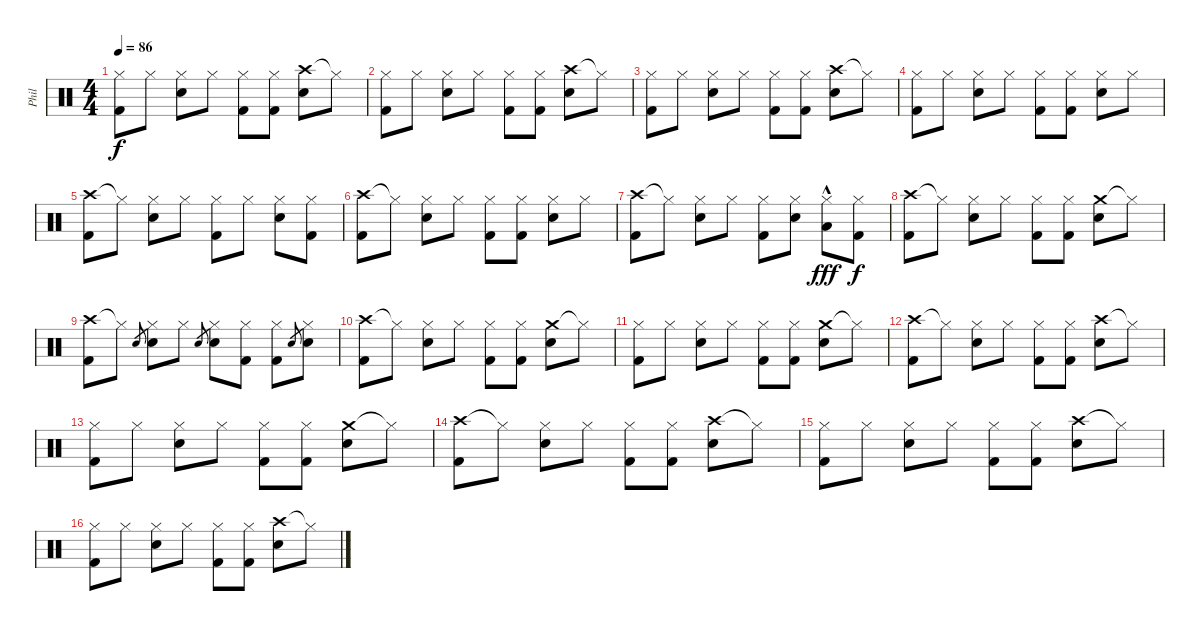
\track ("Phil" "Phil") {instrument percussion}
\staff {score}
\articulation defaults
\ts (4 4)
\tempo 86
\clef neutral
\ks c
("Hi-Hat (closed)" "Kick (hit) 2").8{dy f} "Hi-Hat (closed)".8 ("Hi-Hat (closed)" "Snare (hit) 2").8 "Hi-Hat (closed)".8 ("Hi-Hat (closed)" "Kick (hit) 2").8 ("Hi-Hat (closed)" "Kick (hit) 2").8 ("Crash high (hit)" "Snare (hit) 2").8 "Hi-Hat (closed)"{t}.8 |
("Hi-Hat (closed)" "Kick (hit) 2").8 "Hi-Hat (closed)".8 ("Hi-Hat (closed)" "Snare (hit) 2").8 "Hi-Hat (closed)".8 ("Hi-Hat (closed)" "Kick (hit) 2").8 ("Hi-Hat (closed)" "Kick (hit) 2").8 ("Crash high (hit)" "Snare (hit) 2").8 "Hi-Hat (closed)"{t}.8 |
("Hi-Hat (closed)" "Kick (hit) 2").8 "Hi-Hat (closed)".8 ("Hi-Hat (closed)" "Snare (hit) 2").8 "Hi-Hat (closed)".8 ("Hi-Hat (closed)" "Kick (hit) 2").8 ("Hi-Hat (closed)" "Kick (hit) 2").8 ("Crash high (hit)" "Snare (hit) 2").8 "Hi-Hat (closed)"{t}.8 |
("Hi-Hat (closed)" "Kick (hit) 2").8 "Hi-Hat (closed)".8 ("Hi-Hat (closed)" "Snare (hit) 2").8 "Hi-Hat (closed)".8 ("Hi-Hat (closed)" "Kick (hit) 2").8 ("Hi-Hat (closed)" "Kick (hit) 2").8 ("Hi-Hat (closed)" "Snare (hit) 2").8 "Hi-Hat (closed)".8 |
("Crash high (hit)" "Kick (hit) 2").8 "Hi-Hat (closed)"{t}.8 ("Hi-Hat (closed)" "Snare (hit) 2").8 "Hi-Hat (closed)".8 ("Hi-Hat (closed)" "Kick (hit) 2").8 "Hi-Hat (closed)".8 ("Hi-Hat (closed)" "Snare (hit) 2").8 ("Hi-Hat (closed)" "Kick (hit) 2").8 |
("Crash high (hit)" "Kick (hit) 2").8 "Hi-Hat (closed)"{t}.8 ("Hi-Hat (closed)" "Snare (hit) 2").8 "Hi-Hat (closed)".8 ("Hi-Hat (closed)" "Kick (hit) 2").8 ("Hi-Hat (closed)" "Kick (hit) 2").8 ("Hi-Hat (closed)" "Snare (hit) 2").8 "Hi-Hat (closed)".8 |
("Crash high (hit)" "Kick (hit) 2").8 "Hi-Hat (closed)"{t}.8 ("Hi-Hat (closed)" "Snare (hit) 2").8 "Hi-Hat (closed)".8 ("Hi-Hat (closed)" "Kick (hit) 2").8 ("Hi-Hat (closed)" "Snare (hit) 2").8 ("Hi-Hat (closed)" "Low Floor Tom (hit)"{hac}).8{dy fff} ("Hi-Hat (closed)" "Kick (hit) 2").8{dy f} |
("Crash high (hit)" "Kick (hit) 2").8 "Hi-Hat (closed)"{t}.8 ("Hi-Hat (closed)" "Snare (hit) 2").8 "Hi-Hat (closed)".8 ("Hi-Hat (closed)" "Kick (hit) 2").8 ("Hi-Hat (closed)" "Kick (hit) 2").8 ("Crash medium (hit)" "Snare (hit) 2").8 "Hi-Hat (closed)"{t}.8 |
("Crash high (hit)" "Kick (hit) 2").8 "Hi-Hat (closed)"{t}.8 "Snare (hit) 2".8{gr} ("Hi-Hat (closed)" "Snare (hit) 2").8 "Hi-Hat (closed)".8 "Snare (hit) 2".8{gr} ("Hi-Hat (closed)" "Snare (hit) 2").8 ("Hi-Hat (closed)" "Kick (hit) 2").8 ("Hi-Hat (closed)" "Kick (hit) 2").8 "Snare (hit) 2".8{gr} ("Hi-Hat (closed)" "Snare (hit) 2").8 |
("Crash high (hit)" "Kick (hit) 2").8 "Hi-Hat (closed)"{t}.8 ("Hi-Hat (closed)" "Snare (hit) 2").8 "Hi-Hat (closed)".8 ("Hi-Hat (closed)" "Kick (hit) 2").8 ("Hi-Hat (closed)" "Kick (hit) 2").8 ("Crash medium (hit)" "Snare (hit) 2").8 "Hi-Hat (closed)"{t}.8 |
("Hi-Hat (closed)" "Kick (hit) 2").8 "Hi-Hat (closed)".8 ("Hi-Hat (closed)" "Snare (hit) 2").8 "Hi-Hat (closed)".8 ("Hi-Hat (closed)" "Kick (hit) 2").8 ("Hi-Hat (closed)" "Kick (hit) 2").8 ("Crash medium (hit)" "Snare (hit) 2").8 "Hi-Hat (closed)"{t}.8 |
("Crash high (hit)" "Kick (hit) 2").8 "Hi-Hat (closed)"{t}.8 ("Hi-Hat (closed)" "Snare (hit) 2").8 "Hi-Hat (closed)".8 ("Hi-Hat (closed)" "Kick (hit) 2").8 ("Hi-Hat (closed)" "Kick (hit) 2").8 ("Crash high (hit)" "Snare (hit) 2").8 "Hi-Hat (closed)"{t}.8 |
("Hi-Hat (closed)" "Kick (hit) 2").8 "Hi-Hat (closed)".8 ("Hi-Hat (closed)" "Snare (hit) 2").8 "Hi-Hat (closed)".8 ("Hi-Hat (closed)" "Kick (hit) 2").8 ("Hi-Hat (closed)" "Kick (hit) 2").8 ("Crash medium (hit)" "Snare (hit) 2").8 "Hi-Hat (closed)"{t}.8 |
("Crash high (hit)" "Kick (hit) 2").8 "Hi-Hat (closed)"{t}.8 ("Hi-Hat (closed)" "Snare (hit) 2").8 "Hi-Hat (closed)".8 ("Hi-Hat (closed)" "Kick (hit) 2").8 ("Hi-Hat (closed)" "Kick (hit) 2").8 ("Crash high (hit)" "Snare (hit) 2").8 "Hi-Hat (closed)"{t}.8 |
("Hi-Hat (closed)" "Kick (hit) 2").8 "Hi-Hat (closed)".8 ("Hi-Hat (closed)" "Snare (hit) 2").8 "Hi-Hat (closed)".8 ("Hi-Hat (closed)" "Kick (hit) 2").8 ("Hi-Hat (closed)" "Kick (hit) 2").8 ("Crash high (hit)" "Snare (hit) 2").8 "Hi-Hat (closed)"{t}.8 |
("Hi-Hat (closed)" "Kick (hit) 2").8 "Hi-Hat (closed)".8 ("Hi-Hat (closed)" "Snare (hit) 2").8 "Hi-Hat (closed)".8 ("Hi-Hat (closed)" "Kick (hit) 2").8 ("Hi-Hat (closed)" "Kick (hit) 2").8 ("Crash high (hit)" "Snare (hit) 2").8 "Hi-Hat (closed)"{t}.8
